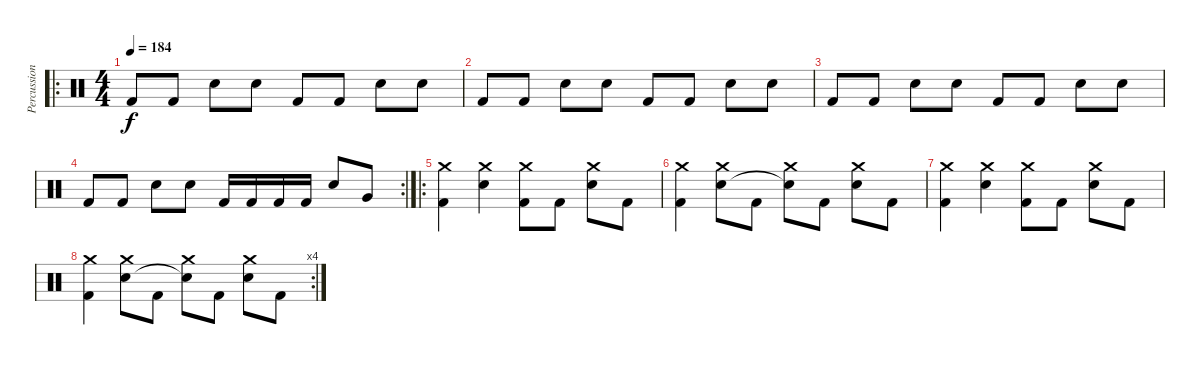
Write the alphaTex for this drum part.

\track ("Percussion" "Percussion") {instrument percussion}
\staff {score}
\articulation defaults
\ro
\ts (4 4)
\tempo 184
\clef neutral
\ks c "Kick (hit) 2".8{dy f} "Kick (hit) 2".8 "Electric Snare (hit)".8 "Electric Snare (hit)".8 "Kick (hit) 2".8 "Kick (hit) 2".8 "Electric Snare (hit)".8 "Electric Snare (hit)".8
|
"Kick (hit) 2".8 "Kick (hit) 2".8 "Electric Snare (hit)".8 "Electric Snare (hit)".8 "Kick (hit) 2".8 "Kick (hit) 2".8 "Electric Snare (hit)".8 "Electric Snare (hit)".8 |
"Kick (hit) 2".8 "Kick (hit) 2".8 "Electric Snare (hit)".8 "Electric Snare (hit)".8 "Kick (hit) 2".8 "Kick (hit) 2".8 "Electric Snare (hit)".8 "Electric Snare (hit)".8 |
\rc 2 "Kick (hit) 2".8 "Kick (hit) 2".8 "Electric Snare (hit)".8 "Electric Snare (hit)".8 "Kick (hit) 2".16 "Kick (hit) 2".16 "Kick (hit) 2".16 "Kick (hit) 2".16 "Electric Snare (hit)".8 "Very Low Tom (hit)".8
|
\ro
("Crash medium (hit)" "Kick (hit) 2").4 ("Crash medium (hit)" "Electric Snare (hit)").4 ("Crash medium (hit)" "Kick (hit) 2").8 "Kick (hit) 2".8 ("Crash medium (hit)" "Electric Snare (hit)").8 "Kick (hit) 2".8 |
("Crash medium (hit)" "Kick (hit) 2").4 ("Crash medium (hit)" "Electric Snare (hit)").8 "Kick (hit) 2".8 ("Crash medium (hit)" "Snare (hit)"{t}).8 "Kick (hit) 2".8 ("Crash medium (hit)" "Electric Snare (hit)").8 "Kick (hit) 2".8 |
("Crash medium (hit)" "Kick (hit) 2").4 ("Crash medium (hit)" "Electric Snare (hit)").4 ("Crash medium (hit)" "Kick (hit) 2").8 "Kick (hit) 2".8 ("Crash medium (hit)" "Electric Snare (hit)").8 "Kick (hit) 2".8 |
\rc 4
("Crash medium (hit)" "Kick (hit) 2").4 ("Crash medium (hit)" "Electric Snare (hit)").8 "Kick (hit) 2".8 ("Crash medium (hit)" "Snare (hit)"{t}).8 "Kick (hit) 2".8 ("Crash medium (hit)" "Electric Snare (hit)").8 "Kick (hit) 2".8
